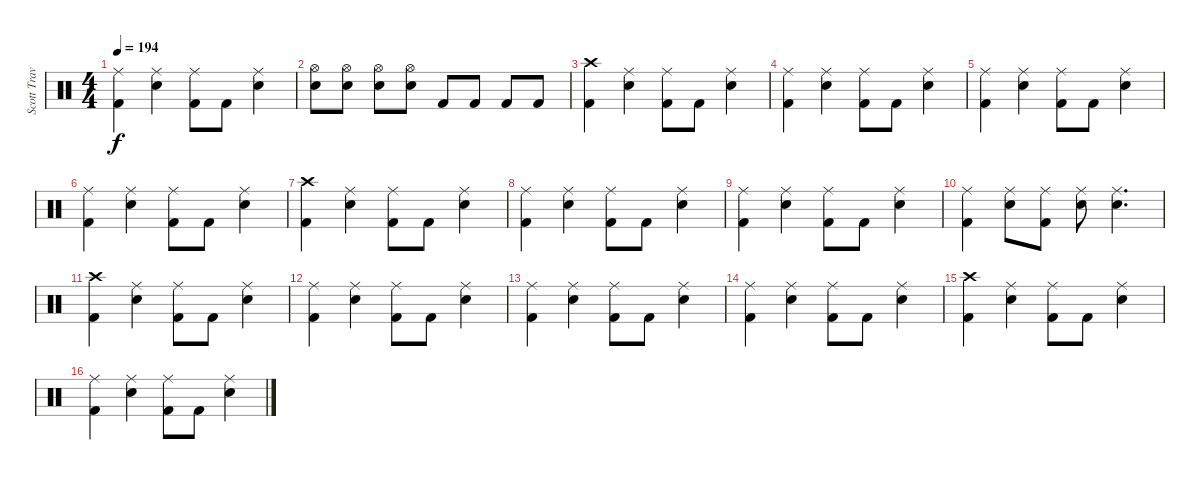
\track ("Scott Travis" "Scott Trav") {instrument percussion}
\staff {score}
\articulation defaults
\ts (4 4)
\tempo 194
\clef neutral
\ks c
("Kick (hit) 2" "Ride (middle)").4{dy f} ("Ride (middle)" "Snare (hit) 2").4 ("Ride (middle)" "Kick (hit) 2").8 "Kick (hit) 2".8 ("Snare (hit) 2" "Ride (middle)").4 |
("Hi-Hat (open)" "Snare (hit) 2").8 ("Hi-Hat (open)" "Snare (hit) 2").8 ("Hi-Hat (open)" "Snare (hit) 2").8 ("Hi-Hat (open)" "Snare (hit) 2").8 "Kick (hit) 2".8 "Kick (hit) 2".8 "Kick (hit) 2".8 "Kick (hit) 2".8 |
("Kick (hit) 2" "Crash high (hit)").4 ("Ride (middle)" "Snare (hit) 2").4 ("Ride (middle)" "Kick (hit) 2").8 "Kick (hit) 2".8 ("Snare (hit) 2" "Ride (middle)").4 |
("Kick (hit) 2" "Ride (middle)").4 ("Ride (middle)" "Snare (hit) 2").4 ("Ride (middle)" "Kick (hit) 2").8 "Kick (hit) 2".8 ("Snare (hit) 2" "Ride (middle)").4 |
("Kick (hit) 2" "Ride (middle)").4 ("Ride (middle)" "Snare (hit) 2").4 ("Ride (middle)" "Kick (hit) 2").8 "Kick (hit) 2".8 ("Snare (hit) 2" "Ride (middle)").4 |
("Kick (hit) 2" "Ride (middle)").4 ("Ride (middle)" "Snare (hit) 2").4 ("Ride (middle)" "Kick (hit) 2").8 "Kick (hit) 2".8 ("Snare (hit) 2" "Ride (middle)").4 |
("Kick (hit) 2" "Crash high (hit)").4 ("Ride (middle)" "Snare (hit) 2").4 ("Ride (middle)" "Kick (hit) 2").8 "Kick (hit) 2".8 ("Snare (hit) 2" "Ride (middle)").4 |
("Kick (hit) 2" "Ride (middle)").4 ("Ride (middle)" "Snare (hit) 2").4 ("Ride (middle)" "Kick (hit) 2").8 "Kick (hit) 2".8 ("Snare (hit) 2" "Ride (middle)").4 |
("Kick (hit) 2" "Ride (middle)").4 ("Ride (middle)" "Snare (hit) 2").4 ("Ride (middle)" "Kick (hit) 2").8 "Kick (hit) 2".8 ("Snare (hit) 2" "Ride (middle)").4 |
("Kick (hit) 2" "Ride (middle)").4 ("Ride (middle)" "Snare (hit) 2").8 ("Ride (middle)" "Kick (hit) 2").8 ("Ride (middle)" "Snare (hit) 2").8 ("Ride (middle)" "Snare (hit) 2").4{d} |
("Kick (hit) 2" "Crash high (hit)").4 ("Ride (middle)" "Snare (hit) 2").4 ("Ride (middle)" "Kick (hit) 2").8 "Kick (hit) 2".8 ("Snare (hit) 2" "Ride (middle)").4 |
("Kick (hit) 2" "Ride (middle)").4 ("Ride (middle)" "Snare (hit) 2").4 ("Ride (middle)" "Kick (hit) 2").8 "Kick (hit) 2".8 ("Snare (hit) 2" "Ride (middle)").4 |
("Kick (hit) 2" "Ride (middle)").4 ("Ride (middle)" "Snare (hit) 2").4 ("Ride (middle)" "Kick (hit) 2").8 "Kick (hit) 2".8 ("Snare (hit) 2" "Ride (middle)").4 |
("Kick (hit) 2" "Ride (middle)").4 ("Ride (middle)" "Snare (hit) 2").4 ("Ride (middle)" "Kick (hit) 2").8 "Kick (hit) 2".8 ("Snare (hit) 2" "Ride (middle)").4 |
("Kick (hit) 2" "Crash high (hit)").4 ("Ride (middle)" "Snare (hit) 2").4 ("Ride (middle)" "Kick (hit) 2").8 "Kick (hit) 2".8 ("Snare (hit) 2" "Ride (middle)").4 |
("Kick (hit) 2" "Ride (middle)").4 ("Ride (middle)" "Snare (hit) 2").4 ("Ride (middle)" "Kick (hit) 2").8 "Kick (hit) 2".8 ("Snare (hit) 2" "Ride (middle)").4
